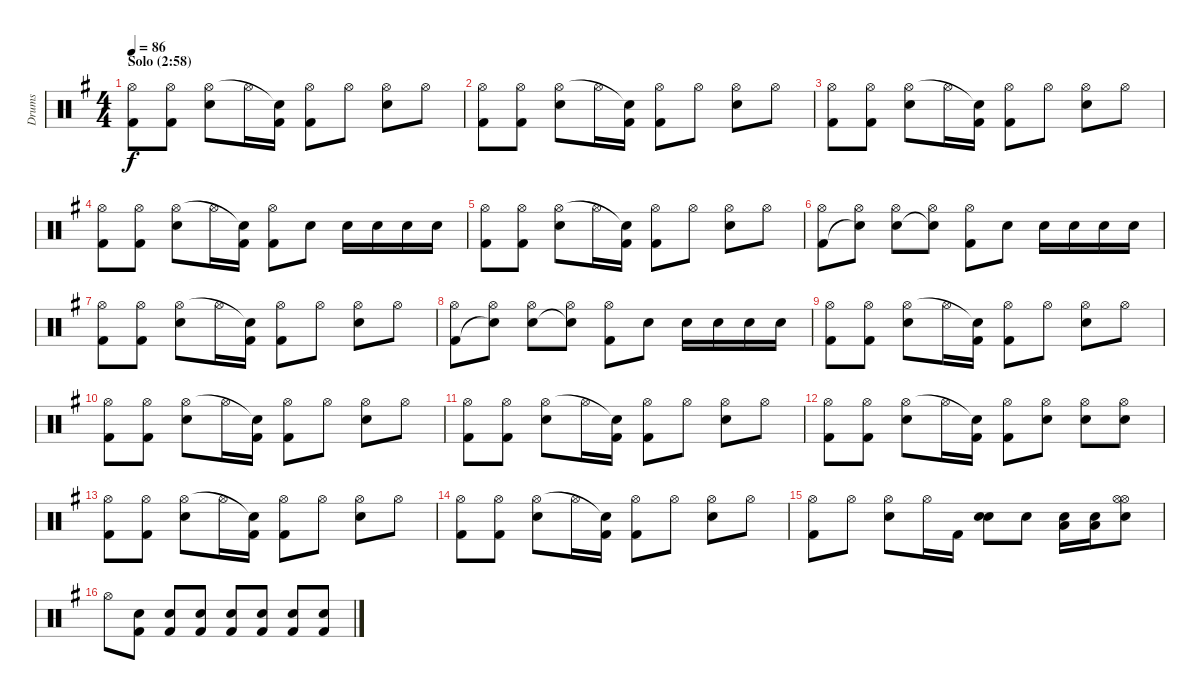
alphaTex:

\track ("Drums" "Drums") {instrument percussion}
\staff {score}
\articulation defaults
\ts (4 4)
\section ("" "Solo (2:58)")
\tempo 86
\clef neutral
\ks eminor
("Kick (hit) 2" "Hi-Hat (open)").8{dy f} ("Kick (hit) 2" "Hi-Hat (open)").8 ("Electric Snare (hit)" "Hi-Hat (open)").8 "Hi-Hat (open)".16 ("Kick (hit) 2" "Snare (hit)"{t}).16 ("Kick (hit) 2" "Hi-Hat (open)").8 "Hi-Hat (open)".8 ("Electric Snare (hit)" "Hi-Hat (open)").8 "Hi-Hat (open)".8 |
("Kick (hit) 2" "Hi-Hat (open)").8 ("Kick (hit) 2" "Hi-Hat (open)").8 ("Electric Snare (hit)" "Hi-Hat (open)").8 "Hi-Hat (open)".16 ("Kick (hit) 2" "Snare (hit)"{t}).16 ("Kick (hit) 2" "Hi-Hat (open)").8 "Hi-Hat (open)".8 ("Electric Snare (hit)" "Hi-Hat (open)").8 "Hi-Hat (open)".8 |
("Kick (hit) 2" "Hi-Hat (open)").8 ("Kick (hit) 2" "Hi-Hat (open)").8 ("Electric Snare (hit)" "Hi-Hat (open)").8 "Hi-Hat (open)".16 ("Kick (hit) 2" "Snare (hit)"{t}).16 ("Kick (hit) 2" "Hi-Hat (open)").8 "Hi-Hat (open)".8 ("Electric Snare (hit)" "Hi-Hat (open)").8 "Hi-Hat (open)".8 |
("Kick (hit) 2" "Hi-Hat (open)").8 ("Kick (hit) 2" "Hi-Hat (open)").8 ("Electric Snare (hit)" "Hi-Hat (open)").8 "Hi-Hat (open)".16 ("Kick (hit) 2" "Snare (hit)"{t}).16 ("Kick (hit) 2" "Hi-Hat (open)").8 "Electric Snare (hit)".8 "Electric Snare (hit)".16 "Electric Snare (hit)".16 "Electric Snare (hit)".16 "Electric Snare (hit)".16 |
("Kick (hit) 2" "Hi-Hat (open)").8 ("Kick (hit) 2" "Hi-Hat (open)").8 ("Electric Snare (hit)" "Hi-Hat (open)").8 "Hi-Hat (open)".16 ("Kick (hit) 2" "Snare (hit)"{t}).16 ("Kick (hit) 2" "Hi-Hat (open)").8 "Hi-Hat (open)".8 ("Electric Snare (hit)" "Hi-Hat (open)").8 "Hi-Hat (open)".8 |
("Kick (hit) 2" "Hi-Hat (open)").8 ("Snare (hit)"{t} "Hi-Hat (open)").8 ("Electric Snare (hit)" "Hi-Hat (open)").8 ("Snare (hit)"{t} "Hi-Hat (open)").8 ("Kick (hit) 2" "Hi-Hat (open)").8 "Electric Snare (hit)".8 "Electric Snare (hit)".16 "Electric Snare (hit)".16 "Electric Snare (hit)".16 "Electric Snare (hit)".16 |
("Kick (hit) 2" "Hi-Hat (open)").8 ("Kick (hit) 2" "Hi-Hat (open)").8 ("Electric Snare (hit)" "Hi-Hat (open)").8 "Hi-Hat (open)".16 ("Kick (hit) 2" "Snare (hit)"{t}).16 ("Kick (hit) 2" "Hi-Hat (open)").8 "Hi-Hat (open)".8 ("Electric Snare (hit)" "Hi-Hat (open)").8 "Hi-Hat (open)".8 |
("Kick (hit) 2" "Hi-Hat (open)").8 ("Snare (hit)"{t} "Hi-Hat (open)").8 ("Electric Snare (hit)" "Hi-Hat (open)").8 ("Snare (hit)"{t} "Hi-Hat (open)").8 ("Kick (hit) 2" "Hi-Hat (open)").8 "Electric Snare (hit)".8 "Electric Snare (hit)".16 "Electric Snare (hit)".16 "Electric Snare (hit)".16 "Electric Snare (hit)".16 |
("Kick (hit) 2" "Hi-Hat (open)").8 ("Kick (hit) 2" "Hi-Hat (open)").8 ("Electric Snare (hit)" "Hi-Hat (open)").8 "Hi-Hat (open)".16 ("Kick (hit) 2" "Snare (hit)"{t}).16 ("Kick (hit) 2" "Hi-Hat (open)").8 "Hi-Hat (open)".8 ("Electric Snare (hit)" "Hi-Hat (open)").8 "Hi-Hat (open)".8 |
("Kick (hit) 2" "Hi-Hat (open)").8 ("Kick (hit) 2" "Hi-Hat (open)").8 ("Electric Snare (hit)" "Hi-Hat (open)").8 "Hi-Hat (open)".16 ("Kick (hit) 2" "Snare (hit)"{t}).16 ("Kick (hit) 2" "Hi-Hat (open)").8 "Hi-Hat (open)".8 ("Electric Snare (hit)" "Hi-Hat (open)").8 "Hi-Hat (open)".8 |
("Kick (hit) 2" "Hi-Hat (open)").8 ("Kick (hit) 2" "Hi-Hat (open)").8 ("Electric Snare (hit)" "Hi-Hat (open)").8 "Hi-Hat (open)".16 ("Kick (hit) 2" "Snare (hit)"{t}).16 ("Kick (hit) 2" "Hi-Hat (open)").8 "Hi-Hat (open)".8 ("Electric Snare (hit)" "Hi-Hat (open)").8 "Hi-Hat (open)".8 |
("Kick (hit) 2" "Hi-Hat (open)").8 ("Kick (hit) 2" "Hi-Hat (open)").8 ("Electric Snare (hit)" "Hi-Hat (open)").8 "Hi-Hat (open)".16 ("Kick (hit) 2" "Snare (hit)"{t}).16 ("Kick (hit) 2" "Hi-Hat (open)").8 ("Hi-Hat (open)" "Electric Snare (hit)").8 ("Hi-Hat (open)" "Electric Snare (hit)").8 ("Hi-Hat (open)" "Electric Snare (hit)").8 |
("Kick (hit) 2" "Hi-Hat (open)").8 ("Kick (hit) 2" "Hi-Hat (open)").8 ("Electric Snare (hit)" "Hi-Hat (open)").8 "Hi-Hat (open)".16 ("Kick (hit) 2" "Snare (hit)"{t}).16 ("Kick (hit) 2" "Hi-Hat (open)").8 "Hi-Hat (open)".8 ("Electric Snare (hit)" "Hi-Hat (open)").8 "Hi-Hat (open)".8 |
("Kick (hit) 2" "Hi-Hat (open)").8 ("Kick (hit) 2" "Hi-Hat (open)").8 ("Electric Snare (hit)" "Hi-Hat (open)").8 "Hi-Hat (open)".16 ("Kick (hit) 2" "Snare (hit)"{t}).16 ("Kick (hit) 2" "Hi-Hat (open)").8 "Hi-Hat (open)".8 ("Electric Snare (hit)" "Hi-Hat (open)").8 "Hi-Hat (open)".8 |
("Kick (hit) 2" "Hi-Hat (open)").8 "Hi-Hat (open)".8 ("Electric Snare (hit)" "Hi-Hat (open)").8 "Hi-Hat (open)".16 "Kick (hit) 2".16 ("Electric Snare (hit)" "Snare (hit) 2").8 "Electric Snare (hit)".8 ("Electric Snare (hit)" "Low Tom (hit)").16 ("Electric Snare (hit)" "Low Tom (hit)").16 ("Electric Snare (hit)" "Hi-Hat (open)" "Hi-Hat (open)").8 |
"Hi-Hat (open)".8 ("Kick (hit) 2" "Electric Snare (hit)").8 ("Kick (hit) 2" "Electric Snare (hit)").8 ("Kick (hit) 2" "Electric Snare (hit)").8 ("Kick (hit) 2" "Electric Snare (hit)").8 ("Kick (hit) 2" "Electric Snare (hit)").8 ("Kick (hit) 2" "Electric Snare (hit)").8 ("Kick (hit) 2" "Electric Snare (hit)").8
